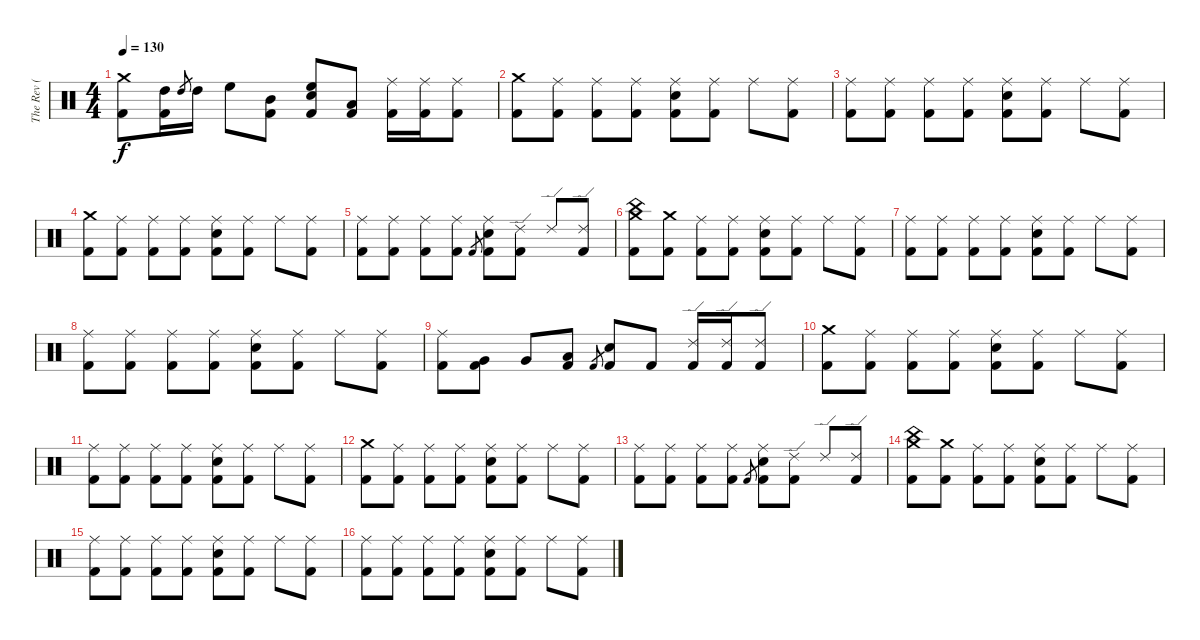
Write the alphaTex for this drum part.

\track ("The Rev ( Drums )" "The Rev ( ") {instrument percussion}
\staff {score}
\articulation defaults
\ts (4 4)
\tempo 130
\clef neutral
\ks c
("Crash medium (hit)" "Kick (hit) 2").8{dy f} ("High Tom (hit)" "Kick (hit) 2").16 "High Tom (hit)".8{gr} "High Tom (hit)".16 "High Floor Tom (hit)".8 ("Mid Tom (hit)" "Kick (hit) 2").8 ("High Floor Tom (hit)" "Snare (hit) 2" "Kick (hit) 2").8 ("Low Tom (hit)" "Kick (hit) 2").8 ("Ride (middle)" "Kick (hit) 2").16 ("Ride (middle)" "Kick (hit) 2").16 ("Ride (middle)" "Kick (hit) 2").8 |
("Crash medium (hit)" "Kick (hit) 2").8 ("Ride (middle)" "Kick (hit) 2").8 ("Ride (middle)" "Kick (hit) 2").8 ("Ride (middle)" "Kick (hit) 2").8 ("Ride (middle)" "Snare (hit) 2" "Kick (hit) 2").8 ("Ride (middle)" "Kick (hit) 2").8 "Ride (middle)".8 ("Ride (middle)" "Kick (hit) 2").8 |
("Ride (middle)" "Kick (hit) 2").8 ("Ride (middle)" "Kick (hit) 2").8 ("Ride (middle)" "Kick (hit) 2").8 ("Ride (middle)" "Kick (hit) 2").8 ("Ride (middle)" "Snare (hit) 2" "Kick (hit) 2").8 ("Ride (middle)" "Kick (hit) 2").8 "Ride (middle)".8 ("Ride (middle)" "Kick (hit) 2").8 |
("Crash medium (hit)" "Kick (hit) 2").8 ("Ride (middle)" "Kick (hit) 2").8 ("Ride (middle)" "Kick (hit) 2").8 ("Ride (middle)" "Kick (hit) 2").8 ("Ride (middle)" "Snare (hit) 2" "Kick (hit) 2").8 ("Ride (middle)" "Kick (hit) 2").8 "Ride (middle)".8 ("Ride (middle)" "Kick (hit) 2").8 |
("Ride (middle)" "Kick (hit) 2").8 ("Ride (middle)" "Kick (hit) 2").8 ("Ride (middle)" "Kick (hit) 2").8 ("Ride (middle)" "Kick (hit) 2").8 "Kick (hit) 2".8{gr} ("Ride (middle)" "Snare (hit) 2" "Kick (hit) 2").8 ("Ride (edge) 2" "Kick (hit) 2").8 "Ride (edge) 2".8 ("Ride (edge) 2" "Kick (hit) 2").8 |
("China (hit)" "Crash medium (hit)" "Kick (hit) 2").8 ("Crash medium (hit)" "Kick (hit) 2").8 ("Ride (middle)" "Kick (hit) 2").8 ("Ride (middle)" "Kick (hit) 2").8 ("Ride (middle)" "Snare (hit) 2" "Kick (hit) 2").8 ("Ride (middle)" "Kick (hit) 2").8 "Ride (middle)".8 ("Ride (middle)" "Kick (hit) 2").8 |
("Ride (middle)" "Kick (hit) 2").8 ("Ride (middle)" "Kick (hit) 2").8 ("Ride (middle)" "Kick (hit) 2").8 ("Ride (middle)" "Kick (hit) 2").8 ("Ride (middle)" "Snare (hit) 2" "Kick (hit) 2").8 ("Ride (middle)" "Kick (hit) 2").8 "Ride (middle)".8 ("Ride (middle)" "Kick (hit) 2").8 |
("Ride (middle)" "Kick (hit) 2").8 ("Ride (middle)" "Kick (hit) 2").8 ("Ride (middle)" "Kick (hit) 2").8 ("Ride (middle)" "Kick (hit) 2").8 ("Ride (middle)" "Snare (hit) 2" "Kick (hit) 2").8 ("Ride (middle)" "Kick (hit) 2").8 "Ride (middle)".8 ("Ride (middle)" "Kick (hit) 2").8 |
("Ride (middle)" "Kick (hit) 2").8 ("Very Low Tom (hit)" "Kick (hit) 2").8 "Very Low Tom (hit)".8 ("Low Floor Tom (hit)" "Kick (hit) 2").8 "Kick (hit) 2".8{gr} ("Snare (hit) 2" "Kick (hit) 2").8 "Kick (hit) 2".8 ("Ride (edge) 2" "Kick (hit) 2").16 ("Ride (edge) 2" "Kick (hit) 2").16 ("Ride (edge) 2" "Kick (hit) 2").8 |
("Crash medium (hit)" "Kick (hit) 2").8 ("Ride (middle)" "Kick (hit) 2").8 ("Ride (middle)" "Kick (hit) 2").8 ("Ride (middle)" "Kick (hit) 2").8 ("Ride (middle)" "Snare (hit) 2" "Kick (hit) 2").8 ("Ride (middle)" "Kick (hit) 2").8 "Ride (middle)".8 ("Ride (middle)" "Kick (hit) 2").8 |
("Ride (middle)" "Kick (hit) 2").8 ("Ride (middle)" "Kick (hit) 2").8 ("Ride (middle)" "Kick (hit) 2").8 ("Ride (middle)" "Kick (hit) 2").8 ("Ride (middle)" "Snare (hit) 2" "Kick (hit) 2").8 ("Ride (middle)" "Kick (hit) 2").8 "Ride (middle)".8 ("Ride (middle)" "Kick (hit) 2").8 |
("Crash medium (hit)" "Kick (hit) 2").8 ("Ride (middle)" "Kick (hit) 2").8 ("Ride (middle)" "Kick (hit) 2").8 ("Ride (middle)" "Kick (hit) 2").8 ("Ride (middle)" "Snare (hit) 2" "Kick (hit) 2").8 ("Ride (middle)" "Kick (hit) 2").8 "Ride (middle)".8 ("Ride (middle)" "Kick (hit) 2").8 |
("Ride (middle)" "Kick (hit) 2").8 ("Ride (middle)" "Kick (hit) 2").8 ("Ride (middle)" "Kick (hit) 2").8 ("Ride (middle)" "Kick (hit) 2").8 "Kick (hit) 2".8{gr} ("Ride (middle)" "Snare (hit) 2" "Kick (hit) 2").8 ("Ride (edge) 2" "Kick (hit) 2").8 "Ride (edge) 2".8 ("Ride (edge) 2" "Kick (hit) 2").8 |
("China (hit)" "Crash medium (hit)" "Kick (hit) 2").8 ("Crash medium (hit)" "Kick (hit) 2").8 ("Ride (middle)" "Kick (hit) 2").8 ("Ride (middle)" "Kick (hit) 2").8 ("Ride (middle)" "Snare (hit) 2" "Kick (hit) 2").8 ("Ride (middle)" "Kick (hit) 2").8 "Ride (middle)".8 ("Ride (middle)" "Kick (hit) 2").8 |
("Ride (middle)" "Kick (hit) 2").8 ("Ride (middle)" "Kick (hit) 2").8 ("Ride (middle)" "Kick (hit) 2").8 ("Ride (middle)" "Kick (hit) 2").8 ("Ride (middle)" "Snare (hit) 2" "Kick (hit) 2").8 ("Ride (middle)" "Kick (hit) 2").8 "Ride (middle)".8 ("Ride (middle)" "Kick (hit) 2").8 |
("Ride (middle)" "Kick (hit) 2").8 ("Ride (middle)" "Kick (hit) 2").8 ("Ride (middle)" "Kick (hit) 2").8 ("Ride (middle)" "Kick (hit) 2").8 ("Ride (middle)" "Snare (hit) 2" "Kick (hit) 2").8 ("Ride (middle)" "Kick (hit) 2").8 "Ride (middle)".8 ("Ride (middle)" "Kick (hit) 2").8
